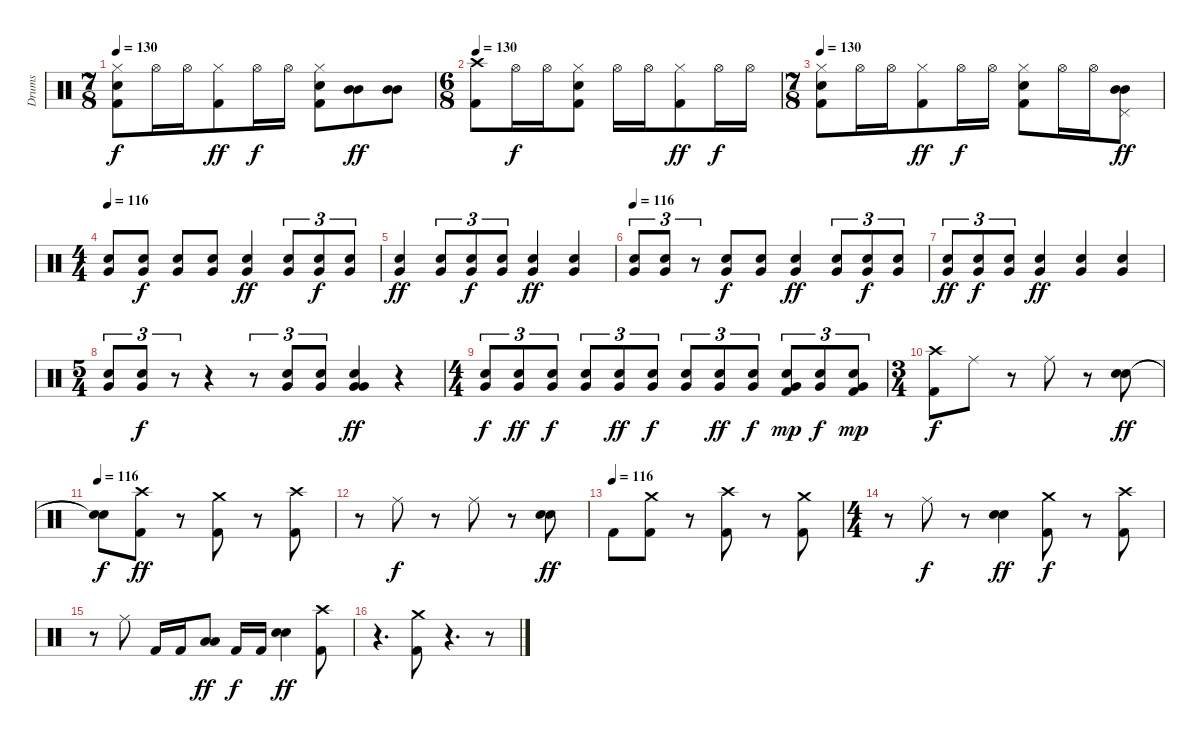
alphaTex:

\track ("Drums" "Drums") {instrument percussion}
\staff {score}
\articulation defaults
\ts (7 8)
\tempo 130
\clef neutral
\ks c
("Electric Snare (hit)" "Kick (hit) 2" "Hi-Hat (closed)").8{dy f} "Hi-Hat (open)".16 "Hi-Hat (open)".16 ("Kick (hit) 2" "Hi-Hat (closed)").8{dy ff} "Hi-Hat (open)".16{dy f} "Hi-Hat (open)".16 ("Kick (hit) 2" "Electric Snare (hit)" "Hi-Hat (closed)").8 ("Mid Tom (hit)" "Mid Tom (hit)").8{dy ff} ("Mid Tom (hit)" "Mid Tom (hit)").8 |
\ts (6 8)
\tempo 130
("Crash high (hit)" "Kick (hit) 2").8 "Hi-Hat (open)".16{dy f} "Hi-Hat (open)".16 ("Kick (hit) 2" "Electric Snare (hit)" "Hi-Hat (closed)").8 "Hi-Hat (open)".16 "Hi-Hat (open)".16 ("Kick (hit) 2" "Hi-Hat (closed)").8{dy ff} "Hi-Hat (open)".16{dy f} "Hi-Hat (open)".16 |
\ts (7 8)
\tempo 130
("Electric Snare (hit)" "Kick (hit) 2" "Hi-Hat (closed)").8 "Hi-Hat (open)".16 "Hi-Hat (open)".16 ("Kick (hit) 2" "Hi-Hat (closed)").8{dy ff} "Hi-Hat (open)".16{dy f} "Hi-Hat (open)".16 ("Kick (hit) 2" "Electric Snare (hit)" "Hi-Hat (closed)").8 "Hi-Hat (open)".16 "Hi-Hat (open)".16 ("Mid Tom (hit)" "Pedal Hi-Hat (hit)" "Mid Tom (hit)").8{dy ff} |
\ts (4 4)
\tempo 116
("Very Low Tom (hit)" "Electric Snare (hit)").8 ("Very Low Tom (hit)" "Electric Snare (hit)").8{dy f} ("Very Low Tom (hit)" "Electric Snare (hit)").8 ("Very Low Tom (hit)" "Electric Snare (hit)").8 ("Very Low Tom (hit)" "Electric Snare (hit)").4{dy ff} ("Electric Snare (hit)" "Very Low Tom (hit)").8{tu (3 2)} ("Very Low Tom (hit)" "Electric Snare (hit)").8{tu (3 2) dy f} ("Very Low Tom (hit)" "Electric Snare (hit)").8{tu (3 2)} |
("Electric Snare (hit)" "Very Low Tom (hit)").4{dy ff} ("Electric Snare (hit)" "Very Low Tom (hit)").8{tu (3 2)} ("Electric Snare (hit)" "Very Low Tom (hit)").8{tu (3 2) dy f} ("Electric Snare (hit)" "Very Low Tom (hit)").8{tu (3 2)} ("Very Low Tom (hit)" "Electric Snare (hit)").4{dy ff} ("Electric Snare (hit)" "Very Low Tom (hit)").4 |
\tempo 116
("Very Low Tom (hit)" "Electric Snare (hit)").8{tu (3 2)} ("Very Low Tom (hit)" "Electric Snare (hit)").8{tu (3 2)} r.8{tu (3 2)} ("Very Low Tom (hit)" "Electric Snare (hit)").8{dy f} ("Electric Snare (hit)" "Very Low Tom (hit)").8 ("Very Low Tom (hit)" "Electric Snare (hit)").4{dy ff} ("Electric Snare (hit)" "Very Low Tom (hit)").8{tu (3 2)} ("Electric Snare (hit)" "Very Low Tom (hit)").8{tu (3 2) dy f} ("Electric Snare (hit)" "Very Low Tom (hit)").8{tu (3 2)} |
("Electric Snare (hit)" "Very Low Tom (hit)").8{tu (3 2) dy ff} ("Electric Snare (hit)" "Very Low Tom (hit)").8{tu (3 2) dy f} ("Very Low Tom (hit)" "Electric Snare (hit)").8{tu (3 2)} ("Electric Snare (hit)" "Very Low Tom (hit)").4{dy ff} ("Electric Snare (hit)" "Very Low Tom (hit)").4 ("Electric Snare (hit)" "Very Low Tom (hit)").4 |
\ts (5 4)
("Electric Snare (hit)" "Very Low Tom (hit)").8{tu (3 2)} ("Electric Snare (hit)" "Very Low Tom (hit)").8{tu (3 2) dy f} r.8{tu (3 2)} r.4 r.8{tu (3 2)} ("Very Low Tom (hit)" "Electric Snare (hit)").8{tu (3 2)} ("Very Low Tom (hit)" "Electric Snare (hit)").8{tu (3 2)} ("Electric Snare (hit)" "Very Low Tom (hit)" "Very Low Tom (hit)").4{dy ff} r.4 |
\ts (4 4)
("Electric Snare (hit)" "Very Low Tom (hit)").8{tu (3 2) dy f} ("Electric Snare (hit)" "Very Low Tom (hit)").8{tu (3 2) dy ff} ("Electric Snare (hit)" "Very Low Tom (hit)").8{tu (3 2) dy f} ("Electric Snare (hit)" "Very Low Tom (hit)").8{tu (3 2)} ("Electric Snare (hit)" "Very Low Tom (hit)").8{tu (3 2) dy ff} ("Electric Snare (hit)" "Very Low Tom (hit)").8{tu (3 2) dy f} ("Electric Snare (hit)" "Very Low Tom (hit)").8{tu (3 2)} ("Electric Snare (hit)" "Very Low Tom (hit)").8{tu (3 2) dy ff} ("Electric Snare (hit)" "Very Low Tom (hit)").8{tu (3 2) dy f} ("Electric Snare (hit)" "Very Low Tom (hit)" "Kick (hit) 2").8{tu (3 2) dy mp} ("Electric Snare (hit)" "Very Low Tom (hit)").8{tu (3 2) dy f} ("Electric Snare (hit)" "Kick (hit) 2" "Very Low Tom (hit)").8{tu (3 2) dy mp} |
\ts (3 4)
("Crash high (hit)" "Kick (hit) 2").8{dy f} "Ride (middle)".8 r.8 "Ride (middle)".8 r.8 ("Electric Snare (hit)" "Electric Snare (hit)").8{dy ff} |
\tempo 116
("Snare (hit)"{t} "Snare (hit)"{t}).8{dy f} ("Crash high (hit)" "Kick (hit) 2").8{dy ff} r.8 ("Crash medium (hit)" "Kick (hit) 2").8 r.8 ("Crash high (hit)" "Kick (hit) 2").8 |
r.8 "Ride (middle)".8{dy f} r.8 "Ride (middle)".8 r.8 ("Electric Snare (hit)" "Electric Snare (hit)").8{dy ff} |
\tempo (116)
"Kick (hit) 2".8 ("Crash medium (hit)" "Kick (hit) 2").8 r.8 ("Crash high (hit)" "Kick (hit) 2").8 r.8 ("Crash medium (hit)" "Kick (hit) 2").8 |
\ts (4 4)
r.8 "Ride (middle)".8{dy f} r.8 ("Electric Snare (hit)" "Electric Snare (hit)").4{dy ff} ("Crash medium (hit)" "Kick (hit) 2").8{dy f} r.8 ("Crash high (hit)" "Kick (hit) 2").8 |
r.8 "Ride (middle)".8 "Kick (hit) 2".16 "Kick (hit) 2".16 ("Low Tom (hit)" "Low Tom (hit)").8{dy ff} "Kick (hit) 2".16{dy f} "Kick (hit) 2".16 ("Electric Snare (hit)" "Electric Snare (hit)").4{dy ff} ("Crash high (hit)" "Kick (hit) 2").8 |
r.4{d} ("Crash medium (hit)" "Kick (hit) 2").8 r.4{d} r.8
